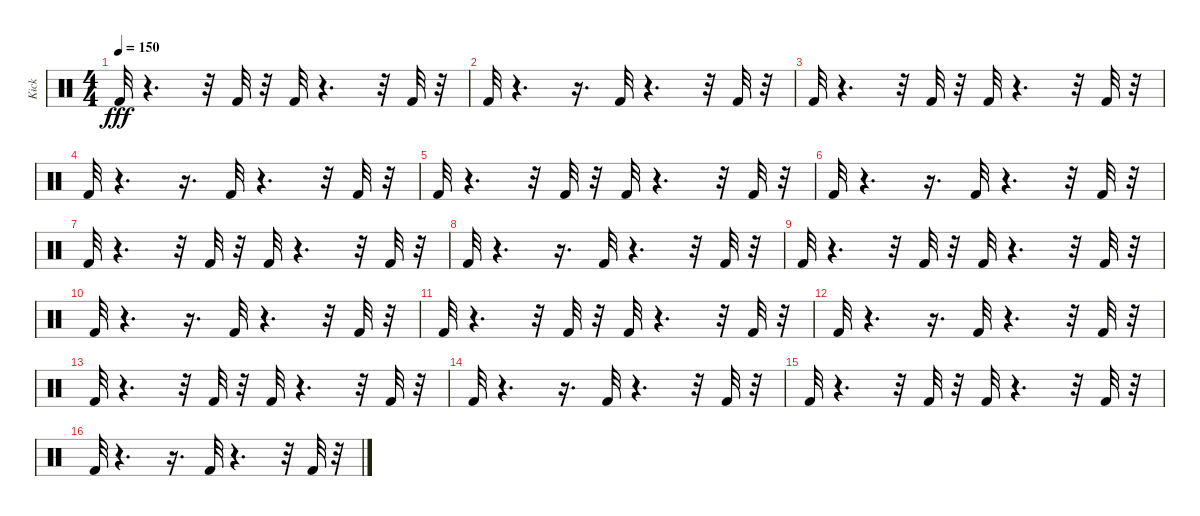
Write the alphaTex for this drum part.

\track ("Kick" "Kick") {instrument percussion}
\staff {score}
\articulation defaults
\ts (4 4)
\tempo 150
\clef neutral
\ks c "Kick (hit) 2".32{dy fff}
r.4{d} r.32 "Kick (hit) 2".32 r.32 "Kick (hit) 2".32 r.4{d} r.32 "Kick (hit) 2".32 r.32 |
"Kick (hit) 2".32 r.4{d} r.16{d} "Kick (hit) 2".32 r.4{d} r.32 "Kick (hit) 2".32 r.32 |
"Kick (hit) 2".32 r.4{d} r.32 "Kick (hit) 2".32 r.32 "Kick (hit) 2".32 r.4{d} r.32 "Kick (hit) 2".32 r.32 |
"Kick (hit) 2".32 r.4{d} r.16{d} "Kick (hit) 2".32 r.4{d} r.32 "Kick (hit) 2".32 r.32 |
"Kick (hit) 2".32 r.4{d} r.32 "Kick (hit) 2".32 r.32 "Kick (hit) 2".32 r.4{d} r.32 "Kick (hit) 2".32 r.32 |
"Kick (hit) 2".32 r.4{d} r.16{d} "Kick (hit) 2".32 r.4{d} r.32 "Kick (hit) 2".32 r.32 |
"Kick (hit) 2".32 r.4{d} r.32 "Kick (hit) 2".32 r.32 "Kick (hit) 2".32 r.4{d} r.32 "Kick (hit) 2".32 r.32 |
"Kick (hit) 2".32 r.4{d} r.16{d} "Kick (hit) 2".32 r.4{d} r.32 "Kick (hit) 2".32 r.32 |
"Kick (hit) 2".32 r.4{d} r.32 "Kick (hit) 2".32 r.32 "Kick (hit) 2".32 r.4{d} r.32 "Kick (hit) 2".32 r.32 |
"Kick (hit) 2".32 r.4{d} r.16{d} "Kick (hit) 2".32 r.4{d} r.32 "Kick (hit) 2".32 r.32 |
"Kick (hit) 2".32 r.4{d} r.32 "Kick (hit) 2".32 r.32 "Kick (hit) 2".32 r.4{d} r.32 "Kick (hit) 2".32 r.32 |
"Kick (hit) 2".32 r.4{d} r.16{d} "Kick (hit) 2".32 r.4{d} r.32 "Kick (hit) 2".32 r.32 |
"Kick (hit) 2".32 r.4{d} r.32 "Kick (hit) 2".32 r.32 "Kick (hit) 2".32 r.4{d} r.32 "Kick (hit) 2".32 r.32 |
"Kick (hit) 2".32 r.4{d} r.16{d} "Kick (hit) 2".32 r.4{d} r.32 "Kick (hit) 2".32 r.32 |
"Kick (hit) 2".32 r.4{d} r.32 "Kick (hit) 2".32 r.32 "Kick (hit) 2".32 r.4{d} r.32 "Kick (hit) 2".32 r.32 |
"Kick (hit) 2".32 r.4{d} r.16{d} "Kick (hit) 2".32 r.4{d} r.32 "Kick (hit) 2".32 r.32
